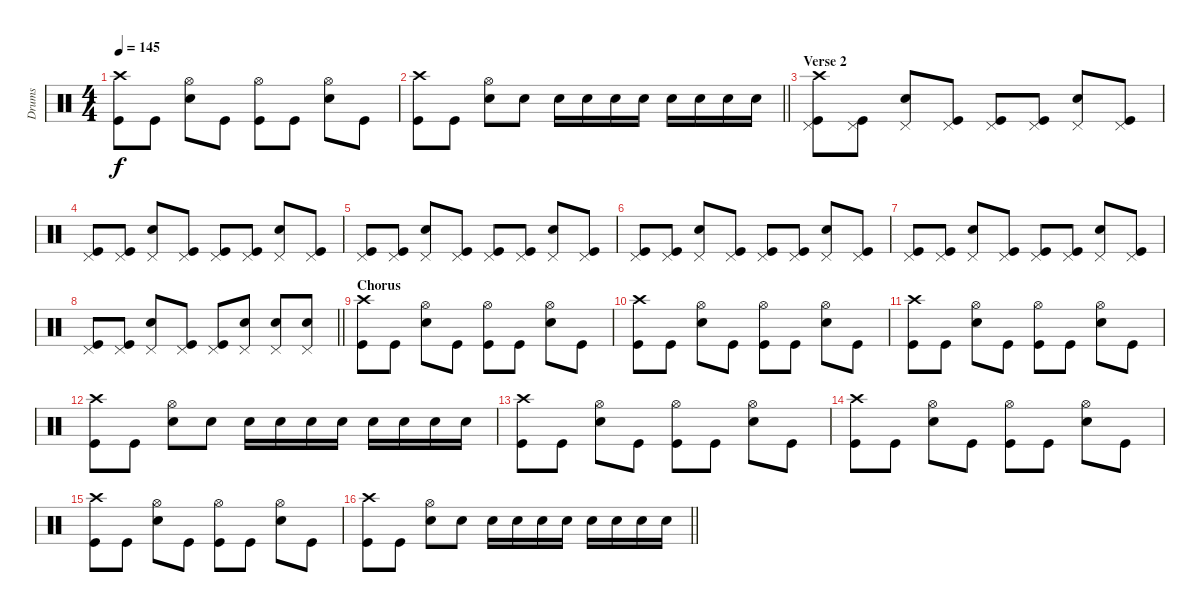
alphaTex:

\track ("Drums" "Drums") {instrument percussion}
\staff {score}
\articulation defaults
\ts (4 4)
\tempo 145
\clef neutral
\ks c
("Crash high (hit)" "Kick (hit)").8{dy f} "Kick (hit)".8 ("Hi-Hat (open)" "Snare (hit) 2").8 "Kick (hit)".8 ("Hi-Hat (open)" "Kick (hit)").8 "Kick (hit)".8 ("Hi-Hat (open)" "Snare (hit) 2").8 "Kick (hit)".8 |
\barLineRight lightlight
("Crash high (hit)" "Kick (hit)").8 "Kick (hit)".8 ("Hi-Hat (open)" "Snare (hit) 2").8 "Snare (hit) 2".8 "Snare (hit) 2".16 "Snare (hit) 2".16 "Snare (hit) 2".16 "Snare (hit) 2".16 "Snare (hit) 2".16 "Snare (hit) 2".16 "Snare (hit) 2".16 "Snare (hit) 2".16 |
\section ("" "Verse 2")
("Crash high (hit)" "Pedal Hi-Hat (hit)" "Kick (hit)").8 ("Pedal Hi-Hat (hit)" "Kick (hit)").8 ("Pedal Hi-Hat (hit)" "Snare (hit) 2").8 ("Pedal Hi-Hat (hit)" "Kick (hit)").8 ("Pedal Hi-Hat (hit)" "Kick (hit)").8 ("Pedal Hi-Hat (hit)" "Kick (hit)").8 ("Pedal Hi-Hat (hit)" "Snare (hit) 2").8 ("Pedal Hi-Hat (hit)" "Kick (hit)").8 |
("Pedal Hi-Hat (hit)" "Kick (hit)").8 ("Pedal Hi-Hat (hit)" "Kick (hit)").8 ("Pedal Hi-Hat (hit)" "Snare (hit) 2").8 ("Pedal Hi-Hat (hit)" "Kick (hit)").8 ("Pedal Hi-Hat (hit)" "Kick (hit)").8 ("Pedal Hi-Hat (hit)" "Kick (hit)").8 ("Pedal Hi-Hat (hit)" "Snare (hit) 2").8 ("Pedal Hi-Hat (hit)" "Kick (hit)").8 |
("Pedal Hi-Hat (hit)" "Kick (hit)").8 ("Pedal Hi-Hat (hit)" "Kick (hit)").8 ("Pedal Hi-Hat (hit)" "Snare (hit) 2").8 ("Pedal Hi-Hat (hit)" "Kick (hit)").8 ("Pedal Hi-Hat (hit)" "Kick (hit)").8 ("Pedal Hi-Hat (hit)" "Kick (hit)").8 ("Pedal Hi-Hat (hit)" "Snare (hit) 2").8 ("Pedal Hi-Hat (hit)" "Kick (hit)").8 |
("Pedal Hi-Hat (hit)" "Kick (hit)").8 ("Pedal Hi-Hat (hit)" "Kick (hit)").8 ("Pedal Hi-Hat (hit)" "Snare (hit) 2").8 ("Pedal Hi-Hat (hit)" "Kick (hit)").8 ("Pedal Hi-Hat (hit)" "Kick (hit)").8 ("Pedal Hi-Hat (hit)" "Kick (hit)").8 ("Pedal Hi-Hat (hit)" "Snare (hit) 2").8 ("Pedal Hi-Hat (hit)" "Kick (hit)").8 |
("Pedal Hi-Hat (hit)" "Kick (hit)").8 ("Pedal Hi-Hat (hit)" "Kick (hit)").8 ("Pedal Hi-Hat (hit)" "Snare (hit) 2").8 ("Pedal Hi-Hat (hit)" "Kick (hit)").8 ("Pedal Hi-Hat (hit)" "Kick (hit)").8 ("Pedal Hi-Hat (hit)" "Kick (hit)").8 ("Pedal Hi-Hat (hit)" "Snare (hit) 2").8 ("Pedal Hi-Hat (hit)" "Kick (hit)").8 |
\barLineRight lightlight
("Pedal Hi-Hat (hit)" "Kick (hit)").8 ("Pedal Hi-Hat (hit)" "Kick (hit)").8 ("Pedal Hi-Hat (hit)" "Snare (hit) 2").8 ("Pedal Hi-Hat (hit)" "Kick (hit)").8 ("Pedal Hi-Hat (hit)" "Kick (hit)").8 ("Pedal Hi-Hat (hit)" "Snare (hit) 2").8 ("Pedal Hi-Hat (hit)" "Snare (hit) 2").8 ("Pedal Hi-Hat (hit)" "Snare (hit) 2").8 |
\section ("" "Chorus")
("Crash high (hit)" "Kick (hit)").8 "Kick (hit)".8 ("Hi-Hat (open)" "Snare (hit) 2").8 "Kick (hit)".8 ("Hi-Hat (open)" "Kick (hit)").8 "Kick (hit)".8 ("Hi-Hat (open)" "Snare (hit) 2").8 "Kick (hit)".8 |
("Crash high (hit)" "Kick (hit)").8 "Kick (hit)".8 ("Hi-Hat (open)" "Snare (hit) 2").8 "Kick (hit)".8 ("Hi-Hat (open)" "Kick (hit)").8 "Kick (hit)".8 ("Hi-Hat (open)" "Snare (hit) 2").8 "Kick (hit)".8 |
("Crash high (hit)" "Kick (hit)").8 "Kick (hit)".8 ("Hi-Hat (open)" "Snare (hit) 2").8 "Kick (hit)".8 ("Hi-Hat (open)" "Kick (hit)").8 "Kick (hit)".8 ("Hi-Hat (open)" "Snare (hit) 2").8 "Kick (hit)".8 |
("Crash high (hit)" "Kick (hit)").8 "Kick (hit)".8 ("Hi-Hat (open)" "Snare (hit) 2").8 "Snare (hit) 2".8 "Snare (hit) 2".16 "Snare (hit) 2".16 "Snare (hit) 2".16 "Snare (hit) 2".16 "Snare (hit) 2".16 "Snare (hit) 2".16 "Snare (hit) 2".16 "Snare (hit) 2".16 |
("Crash high (hit)" "Kick (hit)").8 "Kick (hit)".8 ("Hi-Hat (open)" "Snare (hit) 2").8 "Kick (hit)".8 ("Hi-Hat (open)" "Kick (hit)").8 "Kick (hit)".8 ("Hi-Hat (open)" "Snare (hit) 2").8 "Kick (hit)".8 |
("Crash high (hit)" "Kick (hit)").8 "Kick (hit)".8 ("Hi-Hat (open)" "Snare (hit) 2").8 "Kick (hit)".8 ("Hi-Hat (open)" "Kick (hit)").8 "Kick (hit)".8 ("Hi-Hat (open)" "Snare (hit) 2").8 "Kick (hit)".8 |
("Crash high (hit)" "Kick (hit)").8 "Kick (hit)".8 ("Hi-Hat (open)" "Snare (hit) 2").8 "Kick (hit)".8 ("Hi-Hat (open)" "Kick (hit)").8 "Kick (hit)".8 ("Hi-Hat (open)" "Snare (hit) 2").8 "Kick (hit)".8 |
\barLineRight lightlight
("Crash high (hit)" "Kick (hit)").8 "Kick (hit)".8 ("Hi-Hat (open)" "Snare (hit) 2").8 "Snare (hit) 2".8 "Snare (hit) 2".16 "Snare (hit) 2".16 "Snare (hit) 2".16 "Snare (hit) 2".16 "Snare (hit) 2".16 "Snare (hit) 2".16 "Snare (hit) 2".16 "Snare (hit) 2".16
